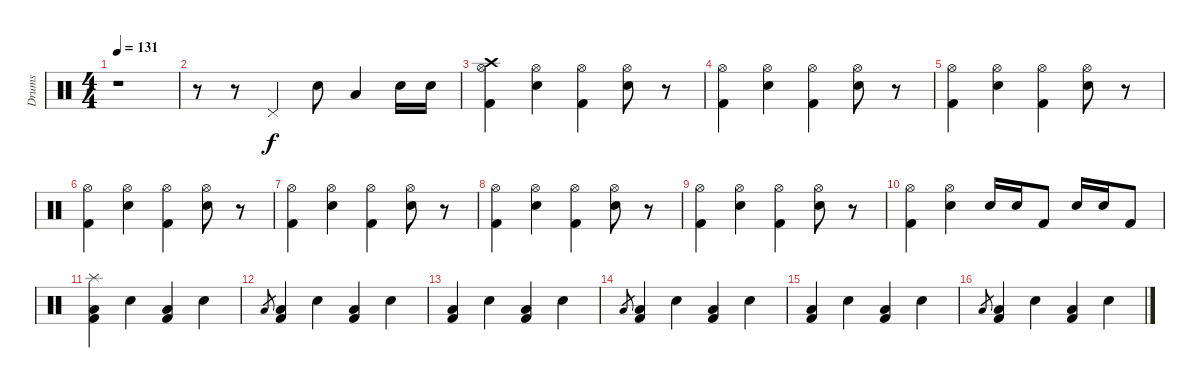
\track ("Drums" "Drums") {instrument percussion}
\staff {score}
\articulation defaults
\ts (4 4)
\tempo 131
\clef neutral
\ks c
r.1{dy f} |
r.8 r.8 "Pedal Hi-Hat (hit)".4 "Electric Snare (hit)".8 "Low Tom (hit)".4 "Electric Snare (hit)".16 "Electric Snare (hit)".16 |
("Crash high (hit)" "Hi-Hat (open)" "Kick (hit) 2").4 ("Hi-Hat (open)" "Electric Snare (hit)").4 ("Hi-Hat (open)" "Kick (hit) 2").4 ("Hi-Hat (open)" "Electric Snare (hit)").8 r.8 |
("Hi-Hat (open)" "Kick (hit) 2").4 ("Hi-Hat (open)" "Electric Snare (hit)").4 ("Hi-Hat (open)" "Kick (hit) 2").4 ("Hi-Hat (open)" "Electric Snare (hit)").8 r.8 |
("Hi-Hat (open)" "Kick (hit) 2").4 ("Hi-Hat (open)" "Electric Snare (hit)").4 ("Hi-Hat (open)" "Kick (hit) 2").4 ("Hi-Hat (open)" "Electric Snare (hit)").8 r.8 |
("Hi-Hat (open)" "Kick (hit) 2").4 ("Hi-Hat (open)" "Electric Snare (hit)").4 ("Hi-Hat (open)" "Kick (hit) 2").4 ("Hi-Hat (open)" "Electric Snare (hit)").8 r.8 |
("Hi-Hat (open)" "Kick (hit) 2").4 ("Hi-Hat (open)" "Electric Snare (hit)").4 ("Hi-Hat (open)" "Kick (hit) 2").4 ("Hi-Hat (open)" "Electric Snare (hit)").8 r.8 |
("Hi-Hat (open)" "Kick (hit) 2").4 ("Hi-Hat (open)" "Electric Snare (hit)").4 ("Hi-Hat (open)" "Kick (hit) 2").4 ("Hi-Hat (open)" "Electric Snare (hit)").8 r.8 |
("Hi-Hat (open)" "Kick (hit) 2").4 ("Hi-Hat (open)" "Electric Snare (hit)").4 ("Hi-Hat (open)" "Kick (hit) 2").4 ("Hi-Hat (open)" "Electric Snare (hit)").8 r.8 |
("Hi-Hat (open)" "Kick (hit) 2").4 ("Hi-Hat (open)" "Electric Snare (hit)").4 "Electric Snare (hit)".16 "Electric Snare (hit)".16 "Kick (hit) 2".8 "Electric Snare (hit)".16 "Electric Snare (hit)".16 "Kick (hit) 2".8 |
("Splash (hit)" "Low Tom (hit)" "Kick (hit) 2").4 "Electric Snare (hit)".4 ("Low Tom (hit)" "Kick (hit) 2").4 "Electric Snare (hit)".4 |
"Low Tom (hit)".8{gr} ("Low Tom (hit)" "Kick (hit) 2").4 "Electric Snare (hit)".4 ("Low Tom (hit)" "Kick (hit) 2").4 "Electric Snare (hit)".4 |
("Low Tom (hit)" "Kick (hit) 2").4 "Electric Snare (hit)".4 ("Low Tom (hit)" "Kick (hit) 2").4 "Electric Snare (hit)".4 |
"Low Tom (hit)".8{gr} ("Low Tom (hit)" "Kick (hit) 2").4 "Electric Snare (hit)".4 ("Low Tom (hit)" "Kick (hit) 2").4 "Electric Snare (hit)".4 |
("Low Tom (hit)" "Kick (hit) 2").4 "Electric Snare (hit)".4 ("Low Tom (hit)" "Kick (hit) 2").4 "Electric Snare (hit)".4 |
"Low Tom (hit)".8{gr} ("Low Tom (hit)" "Kick (hit) 2").4 "Electric Snare (hit)".4 ("Low Tom (hit)" "Kick (hit) 2").4 "Electric Snare (hit)".4
